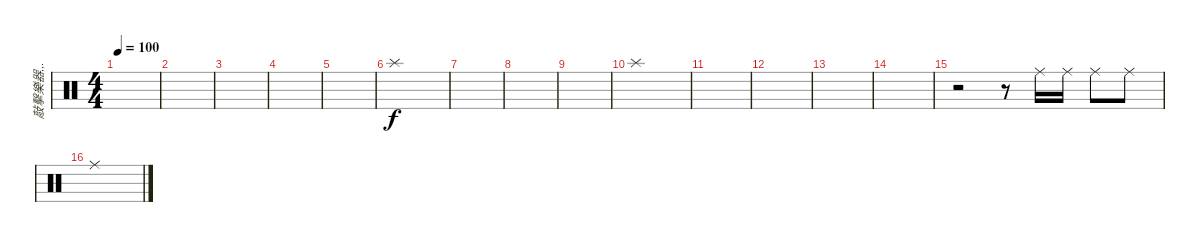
\track ("敲擊樂器,,." "敲擊樂器,,.") {instrument percussion}
\staff {score}
\articulation defaults
\ts (4 4)
\tempo 100
\clef neutral
\ks c
|
|
|
|
|
"Splash (hit)".1 |
|
|
|
"Splash (hit)".1 |
|
|
|
|
r.2 r.8 "Ride (middle)".16 "Ride (middle)".16 "Ride (middle)".8 "Ride (middle)".8 |
"Ride (middle)".1
